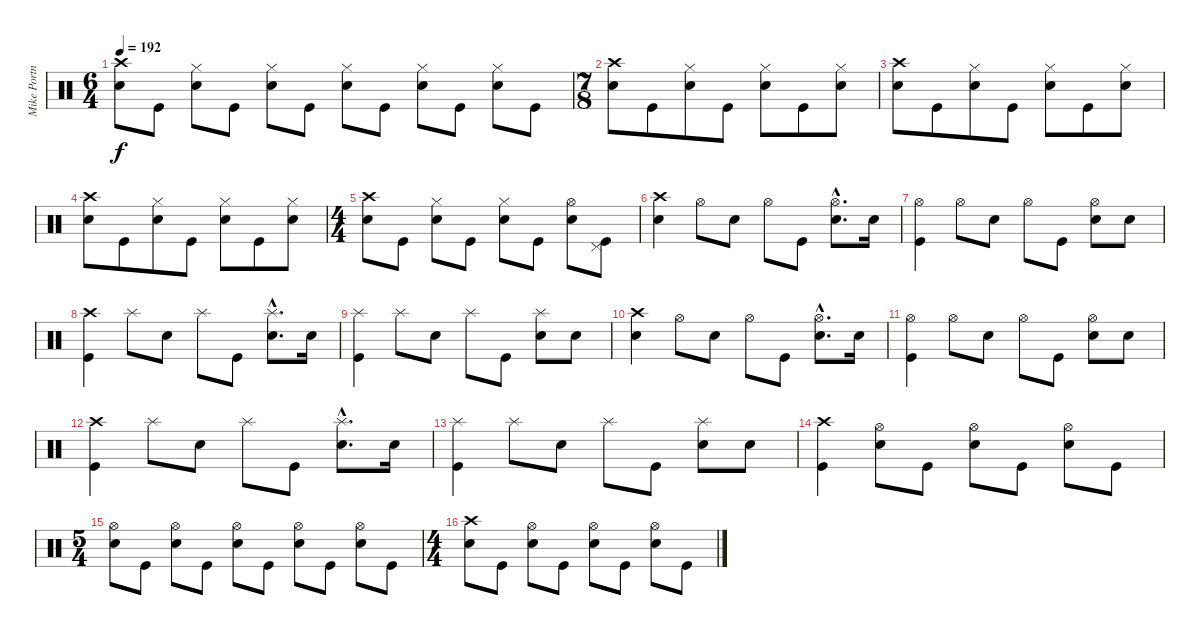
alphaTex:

\track ("Mike Portnoy" "Mike Portn") {instrument percussion}
\staff {score}
\articulation defaults
\ts (6 4)
\tempo 192
\clef neutral
\ks c
("Crash high (hit)" "Electric Snare (hit)").8{dy f} "Kick (hit)".8 ("Hi-Hat (closed)" "Electric Snare (hit)").8 "Kick (hit)".8 ("Hi-Hat (closed)" "Electric Snare (hit)").8 "Kick (hit)".8 ("Hi-Hat (closed)" "Electric Snare (hit)").8 "Kick (hit)".8 ("Hi-Hat (closed)" "Electric Snare (hit)").8 "Kick (hit)".8 ("Hi-Hat (closed)" "Electric Snare (hit)").8 "Kick (hit)".8 |
\ts (7 8)
("Crash high (hit)" "Electric Snare (hit)").8 "Kick (hit)".8 ("Hi-Hat (closed)" "Electric Snare (hit)").8 "Kick (hit)".8 ("Hi-Hat (closed)" "Electric Snare (hit)").8 "Kick (hit)".8 ("Hi-Hat (closed)" "Electric Snare (hit)").8 |
("Crash high (hit)" "Electric Snare (hit)").8 "Kick (hit)".8 ("Hi-Hat (closed)" "Electric Snare (hit)").8 "Kick (hit)".8 ("Hi-Hat (closed)" "Electric Snare (hit)").8 "Kick (hit)".8 ("Hi-Hat (closed)" "Electric Snare (hit)").8 |
("Crash high (hit)" "Electric Snare (hit)").8 "Kick (hit)".8 ("Hi-Hat (closed)" "Electric Snare (hit)").8 "Kick (hit)".8 ("Hi-Hat (closed)" "Electric Snare (hit)").8 "Kick (hit)".8 ("Hi-Hat (closed)" "Electric Snare (hit)").8 |
\ts (4 4)
("Crash high (hit)" "Electric Snare (hit)").8 "Kick (hit)".8 ("Hi-Hat (closed)" "Electric Snare (hit)").8 "Kick (hit)".8 ("Hi-Hat (closed)" "Electric Snare (hit)").8 "Kick (hit)".8 ("Hi-Hat (open)" "Electric Snare (hit)").8 ("Pedal Hi-Hat (hit)" "Kick (hit)").8 |
("Crash high (hit)" "Electric Snare (hit)").4 "Hi-Hat (open)".8 "Electric Snare (hit)".8 "Hi-Hat (open)".8 "Kick (hit)".8 ("Hi-Hat (open)"{hac} "Electric Snare (hit)"{hac}).8{d} "Electric Snare (hit)".16 |
("Hi-Hat (open)" "Kick (hit)").4 "Hi-Hat (open)".8 "Electric Snare (hit)".8 "Hi-Hat (open)".8 "Kick (hit)".8 ("Hi-Hat (open)" "Electric Snare (hit)").8 "Electric Snare (hit)".8 |
("Crash high (hit)" "Kick (hit)").4 "Splash (hit)".8 "Electric Snare (hit)".8 "Splash (hit)".8 "Kick (hit)".8 ("Splash (hit)"{hac} "Electric Snare (hit)"{hac}).8{d} "Electric Snare (hit)".16 |
("Splash (hit)" "Kick (hit)").4 "Splash (hit)".8 "Electric Snare (hit)".8 "Splash (hit)".8 "Kick (hit)".8 ("Splash (hit)" "Electric Snare (hit)").8 "Electric Snare (hit)".8 |
("Crash high (hit)" "Electric Snare (hit)").4 "Hi-Hat (open)".8 "Electric Snare (hit)".8 "Hi-Hat (open)".8 "Kick (hit)".8 ("Hi-Hat (open)"{hac} "Electric Snare (hit)"{hac}).8{d} "Electric Snare (hit)".16 |
("Hi-Hat (open)" "Kick (hit)").4 "Hi-Hat (open)".8 "Electric Snare (hit)".8 "Hi-Hat (open)".8 "Kick (hit)".8 ("Hi-Hat (open)" "Electric Snare (hit)").8 "Electric Snare (hit)".8 |
("Crash high (hit)" "Kick (hit)").4 "Splash (hit)".8 "Electric Snare (hit)".8 "Splash (hit)".8 "Kick (hit)".8 ("Splash (hit)"{hac} "Electric Snare (hit)"{hac}).8{d} "Electric Snare (hit)".16 |
("Splash (hit)" "Kick (hit)").4 "Splash (hit)".8 "Electric Snare (hit)".8 "Splash (hit)".8 "Kick (hit)".8 ("Splash (hit)" "Electric Snare (hit)").8 "Electric Snare (hit)".8 |
("Crash high (hit)" "Kick (hit)").4 ("Hi-Hat (open)" "Electric Snare (hit)").8 "Kick (hit)".8 ("Hi-Hat (open)" "Electric Snare (hit)").8 "Kick (hit)".8 ("Hi-Hat (open)" "Electric Snare (hit)").8 "Kick (hit)".8 |
\ts (5 4)
("Hi-Hat (open)" "Electric Snare (hit)").8 "Kick (hit)".8 ("Hi-Hat (open)" "Electric Snare (hit)").8 "Kick (hit)".8 ("Hi-Hat (open)" "Electric Snare (hit)").8 "Kick (hit)".8 ("Hi-Hat (open)" "Electric Snare (hit)").8 "Kick (hit)".8 ("Hi-Hat (open)" "Electric Snare (hit)").8 "Kick (hit)".8 |
\ts (4 4)
("Crash high (hit)" "Electric Snare (hit)").8 "Kick (hit)".8 ("Hi-Hat (open)" "Electric Snare (hit)").8 "Kick (hit)".8 ("Hi-Hat (open)" "Electric Snare (hit)").8 "Kick (hit)".8 ("Hi-Hat (open)" "Electric Snare (hit)").8 "Kick (hit)".8
